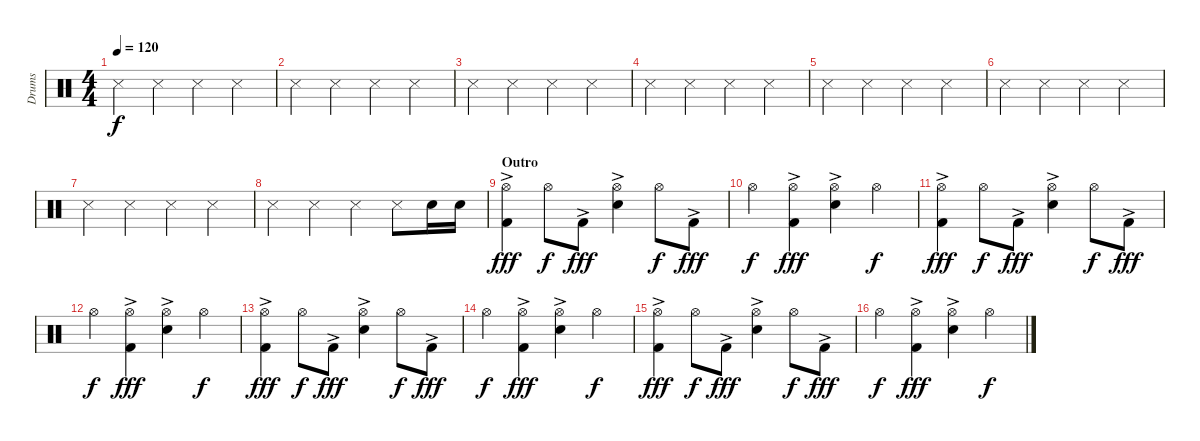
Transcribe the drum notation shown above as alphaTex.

\track ("Drums" "Drums") {instrument percussion}
\staff {score}
\articulation defaults
\ts (4 4)
\tempo 120
\clef neutral
\ks c "Metronome (hit)".4{dy f} "Metronome (hit)".4 "Metronome (hit)".4 "Metronome (hit)".4
|
"Metronome (hit)".4 "Metronome (hit)".4 "Metronome (hit)".4 "Metronome (hit)".4 |
"Metronome (hit)".4 "Metronome (hit)".4 "Metronome (hit)".4 "Metronome (hit)".4 |
"Metronome (hit)".4 "Metronome (hit)".4 "Metronome (hit)".4 "Metronome (hit)".4 |
"Metronome (hit)".4 "Metronome (hit)".4 "Metronome (hit)".4 "Metronome (hit)".4 |
"Metronome (hit)".4 "Metronome (hit)".4 "Metronome (hit)".4 "Metronome (hit)".4 |
"Metronome (hit)".4 "Metronome (hit)".4 "Metronome (hit)".4 "Metronome (hit)".4 |
"Metronome (hit)".4 "Metronome (hit)".4 "Metronome (hit)".4 "Metronome (hit)".8 "Electric Snare (hit)".16 "Electric Snare (hit)".16 |
\section ("" "Outro")
("Hi-Hat (open)" "Kick (hit) 2"{ac}).4{dy fff} "Hi-Hat (open)".8{dy f} "Kick (hit) 2"{ac}.8{dy fff} ("Hi-Hat (open)" "Electric Snare (hit)"{ac}).4 "Hi-Hat (open)".8{dy f} "Kick (hit) 2"{ac}.8{dy fff} |
"Hi-Hat (open)".4{dy f} ("Hi-Hat (open)" "Kick (hit) 2"{ac}).4{dy fff} ("Hi-Hat (open)" "Electric Snare (hit)"{ac}).4 "Hi-Hat (open)".4{dy f} |
("Hi-Hat (open)" "Kick (hit) 2"{ac}).4{dy fff} "Hi-Hat (open)".8{dy f} "Kick (hit) 2"{ac}.8{dy fff} ("Hi-Hat (open)" "Electric Snare (hit)"{ac}).4 "Hi-Hat (open)".8{dy f} "Kick (hit) 2"{ac}.8{dy fff} |
"Hi-Hat (open)".4{dy f} ("Hi-Hat (open)" "Kick (hit) 2"{ac}).4{dy fff} ("Hi-Hat (open)" "Electric Snare (hit)"{ac}).4 "Hi-Hat (open)".4{dy f} |
("Hi-Hat (open)" "Kick (hit) 2"{ac}).4{dy fff} "Hi-Hat (open)".8{dy f} "Kick (hit) 2"{ac}.8{dy fff} ("Hi-Hat (open)" "Electric Snare (hit)"{ac}).4 "Hi-Hat (open)".8{dy f} "Kick (hit) 2"{ac}.8{dy fff} |
"Hi-Hat (open)".4{dy f} ("Hi-Hat (open)" "Kick (hit) 2"{ac}).4{dy fff} ("Hi-Hat (open)" "Electric Snare (hit)"{ac}).4 "Hi-Hat (open)".4{dy f} |
("Hi-Hat (open)" "Kick (hit) 2"{ac}).4{dy fff} "Hi-Hat (open)".8{dy f} "Kick (hit) 2"{ac}.8{dy fff} ("Hi-Hat (open)" "Electric Snare (hit)"{ac}).4 "Hi-Hat (open)".8{dy f} "Kick (hit) 2"{ac}.8{dy fff} |
"Hi-Hat (open)".4{dy f} ("Hi-Hat (open)" "Kick (hit) 2"{ac}).4{dy fff} ("Hi-Hat (open)" "Electric Snare (hit)"{ac}).4 "Hi-Hat (open)".4{dy f}
